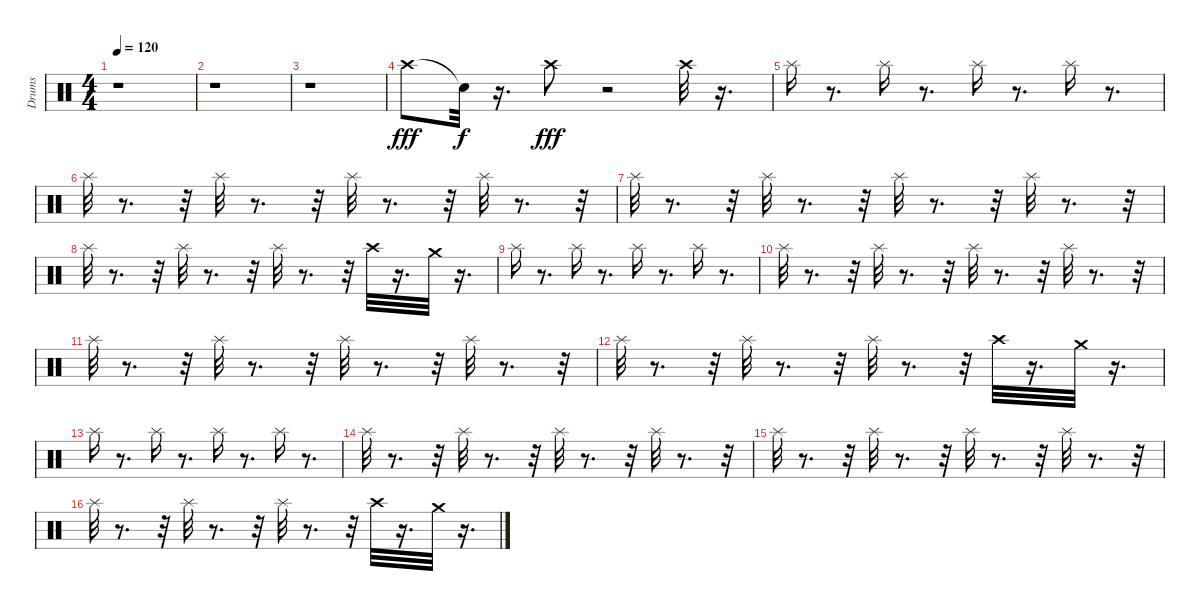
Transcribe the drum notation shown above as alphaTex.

\track ("Drums" "Drums") {instrument percussion}
\staff {score}
\articulation defaults
\ts (4 4)
\tempo 120
\clef neutral
\ks c
r.1{dy fff} |
r.1 |
r.1 |
"Crash high (hit)".8 "Snare (hit)"{t}.32{dy f} r.16{d} "Crash high (hit)".8{dy fff} r.2 "Crash high (hit)".32 r.16{d} |
"Splash (hit)".16 r.8{d} "Splash (hit)".16 r.8{d} "Splash (hit)".16 r.8{d} "Splash (hit)".16 r.8{d} |
"Splash (hit)".32 r.8{d} r.32 "Splash (hit)".32 r.8{d} r.32 "Splash (hit)".32 r.8{d} r.32 "Splash (hit)".32 r.8{d} r.32 |
"Splash (hit)".32 r.8{d} r.32 "Splash (hit)".32 r.8{d} r.32 "Splash (hit)".32 r.8{d} r.32 "Splash (hit)".32 r.8{d} r.32 |
"Splash (hit)".32 r.8{d} r.32 "Splash (hit)".32 r.8{d} r.32 "Splash (hit)".32 r.8{d} r.32 "Crash high (hit)".32 r.16{d} "Crash medium (hit)".32 r.16{d} |
"Splash (hit)".16 r.8{d} "Splash (hit)".16 r.8{d} "Splash (hit)".16 r.8{d} "Splash (hit)".16 r.8{d} |
"Splash (hit)".32 r.8{d} r.32 "Splash (hit)".32 r.8{d} r.32 "Splash (hit)".32 r.8{d} r.32 "Splash (hit)".32 r.8{d} r.32 |
"Splash (hit)".32 r.8{d} r.32 "Splash (hit)".32 r.8{d} r.32 "Splash (hit)".32 r.8{d} r.32 "Splash (hit)".32 r.8{d} r.32 |
"Splash (hit)".32 r.8{d} r.32 "Splash (hit)".32 r.8{d} r.32 "Splash (hit)".32 r.8{d} r.32 "Crash high (hit)".32 r.16{d} "Crash medium (hit)".32 r.16{d} |
"Splash (hit)".16 r.8{d} "Splash (hit)".16 r.8{d} "Splash (hit)".16 r.8{d} "Splash (hit)".16 r.8{d} |
"Splash (hit)".32 r.8{d} r.32 "Splash (hit)".32 r.8{d} r.32 "Splash (hit)".32 r.8{d} r.32 "Splash (hit)".32 r.8{d} r.32 |
"Splash (hit)".32 r.8{d} r.32 "Splash (hit)".32 r.8{d} r.32 "Splash (hit)".32 r.8{d} r.32 "Splash (hit)".32 r.8{d} r.32 |
"Splash (hit)".32 r.8{d} r.32 "Splash (hit)".32 r.8{d} r.32 "Splash (hit)".32 r.8{d} r.32 "Crash high (hit)".32 r.16{d} "Crash medium (hit)".32 r.16{d}
